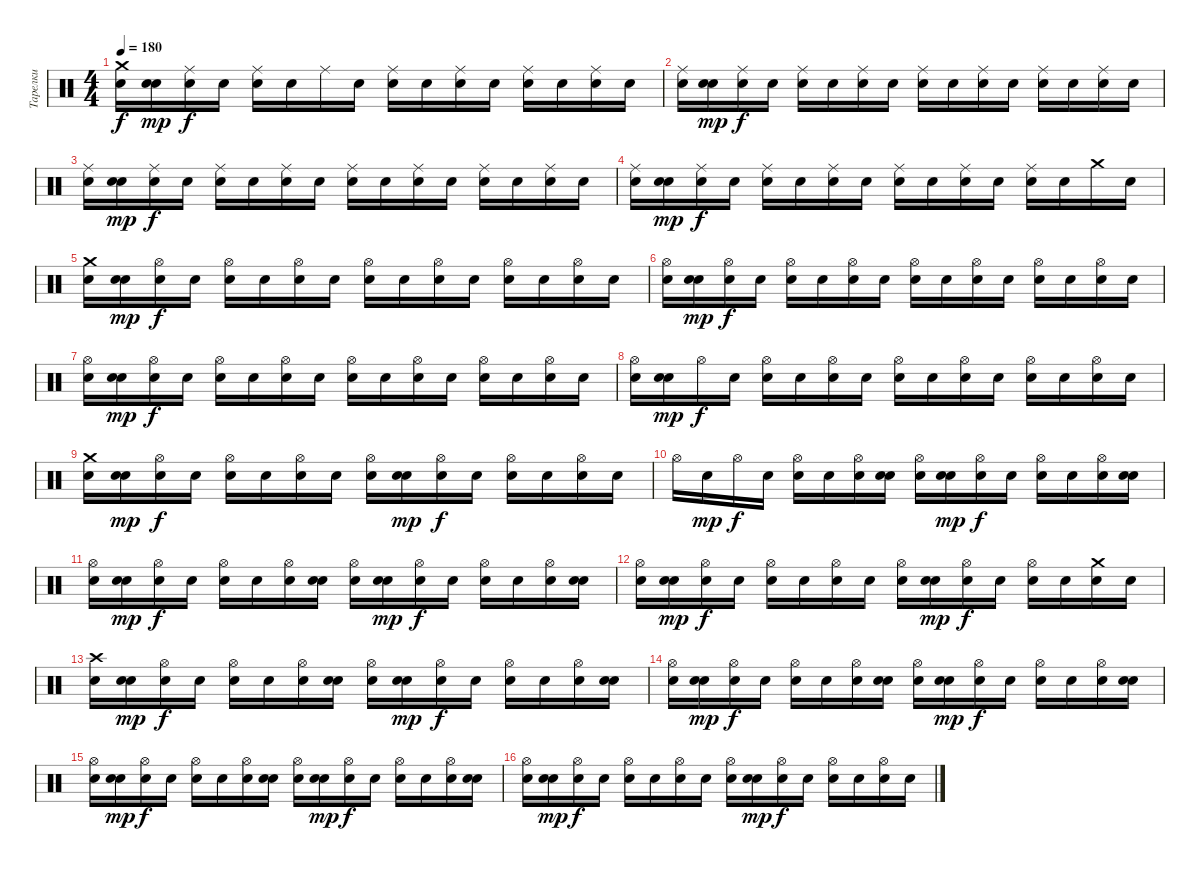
\track ("Тарелки" "Тарелки") {instrument percussion}
\staff {score}
\articulation defaults
\ts (4 4)
\tempo 180
\clef neutral
\ks c
("Crash medium (hit)" "Snare (hit)").16{dy f} ("Snare (hit)" "Snare (hit)").16{dy mp} ("Ride (middle)" "Snare (hit)").16{dy f} "Snare (hit)".16 ("Ride (middle)" "Snare (hit)").16 "Snare (hit)".16 "Ride (middle)".16 "Snare (hit)".16 ("Ride (middle)" "Snare (hit)").16 "Snare (hit)".16 ("Ride (middle)" "Snare (hit)").16 "Snare (hit)".16 ("Ride (middle)" "Snare (hit)").16 "Snare (hit)".16 ("Ride (middle)" "Snare (hit)").16 "Snare (hit)".16 |
("Ride (middle)" "Snare (hit)").16 ("Snare (hit)" "Snare (hit)").16{dy mp} ("Ride (middle)" "Snare (hit)").16{dy f} "Snare (hit)".16 ("Ride (middle)" "Snare (hit)").16 "Snare (hit)".16 ("Ride (middle)" "Snare (hit)").16 "Snare (hit)".16 ("Ride (middle)" "Snare (hit)").16 "Snare (hit)".16 ("Ride (middle)" "Snare (hit)").16 "Snare (hit)".16 ("Ride (middle)" "Snare (hit)").16 "Snare (hit)".16 ("Ride (middle)" "Snare (hit)").16 "Snare (hit)".16 |
("Ride (middle)" "Snare (hit)").16 ("Snare (hit)" "Snare (hit)").16{dy mp} ("Ride (middle)" "Snare (hit)").16{dy f} "Snare (hit)".16 ("Ride (middle)" "Snare (hit)").16 "Snare (hit)".16 ("Ride (middle)" "Snare (hit)").16 "Snare (hit)".16 ("Ride (middle)" "Snare (hit)").16 "Snare (hit)".16 ("Ride (middle)" "Snare (hit)").16 "Snare (hit)".16 ("Ride (middle)" "Snare (hit)").16 "Snare (hit)".16 ("Ride (middle)" "Snare (hit)").16 "Snare (hit)".16 |
("Ride (middle)" "Snare (hit)").16 ("Snare (hit)" "Snare (hit)").16{dy mp} ("Ride (middle)" "Snare (hit)").16{dy f} "Snare (hit)".16 ("Ride (middle)" "Snare (hit)").16 "Snare (hit)".16 ("Ride (middle)" "Snare (hit)").16 "Snare (hit)".16 ("Ride (middle)" "Snare (hit)").16 "Snare (hit)".16 ("Ride (middle)" "Snare (hit)").16 "Snare (hit)".16 ("Ride (middle)" "Snare (hit)").16 "Snare (hit)".16 "Crash medium (hit)".16 "Snare (hit)".16 |
("Crash medium (hit)" "Snare (hit)").16 ("Snare (hit)" "Snare (hit)").16{dy mp} ("Hi-Hat (open)" "Snare (hit)").16{dy f} "Snare (hit)".16 ("Hi-Hat (open)" "Snare (hit)").16 "Snare (hit)".16 ("Hi-Hat (open)" "Snare (hit)").16 "Snare (hit)".16 ("Hi-Hat (open)" "Snare (hit)").16 "Snare (hit)".16 ("Hi-Hat (open)" "Snare (hit)").16 "Snare (hit)".16 ("Hi-Hat (open)" "Snare (hit)").16 "Snare (hit)".16 ("Hi-Hat (open)" "Snare (hit)").16 "Snare (hit)".16 |
("Hi-Hat (open)" "Snare (hit)").16 ("Snare (hit)" "Snare (hit)").16{dy mp} ("Hi-Hat (open)" "Snare (hit)").16{dy f} "Snare (hit)".16 ("Hi-Hat (open)" "Snare (hit)").16 "Snare (hit)".16 ("Hi-Hat (open)" "Snare (hit)").16 "Snare (hit)".16 ("Hi-Hat (open)" "Snare (hit)").16 "Snare (hit)".16 ("Hi-Hat (open)" "Snare (hit)").16 "Snare (hit)".16 ("Hi-Hat (open)" "Snare (hit)").16 "Snare (hit)".16 ("Hi-Hat (open)" "Snare (hit)").16 "Snare (hit)".16 |
("Hi-Hat (open)" "Snare (hit)").16 ("Snare (hit)" "Snare (hit)").16{dy mp} ("Hi-Hat (open)" "Snare (hit)").16{dy f} "Snare (hit)".16 ("Hi-Hat (open)" "Snare (hit)").16 "Snare (hit)".16 ("Hi-Hat (open)" "Snare (hit)").16 "Snare (hit)".16 ("Hi-Hat (open)" "Snare (hit)").16 "Snare (hit)".16 ("Hi-Hat (open)" "Snare (hit)").16 "Snare (hit)".16 ("Hi-Hat (open)" "Snare (hit)").16 "Snare (hit)".16 ("Hi-Hat (open)" "Snare (hit)").16 "Snare (hit)".16 |
("Hi-Hat (open)" "Snare (hit)").16 ("Snare (hit)" "Snare (hit)").16{dy mp} "Hi-Hat (open)".16{dy f} "Snare (hit)".16 ("Hi-Hat (open)" "Snare (hit)").16 "Snare (hit)".16 ("Hi-Hat (open)" "Snare (hit)").16 "Snare (hit)".16 ("Hi-Hat (open)" "Snare (hit)").16 "Snare (hit)".16 ("Hi-Hat (open)" "Snare (hit)").16 "Snare (hit)".16 ("Hi-Hat (open)" "Snare (hit)").16 "Snare (hit)".16 ("Hi-Hat (open)" "Snare (hit)").16 "Snare (hit)".16 |
("Crash medium (hit)" "Snare (hit)").16 ("Snare (hit)" "Snare (hit)").16{dy mp} ("Hi-Hat (open)" "Snare (hit)").16{dy f} "Snare (hit)".16 ("Hi-Hat (open)" "Snare (hit)").16 "Snare (hit)".16 ("Hi-Hat (open)" "Snare (hit)").16 "Snare (hit)".16 ("Hi-Hat (open)" "Snare (hit)").16 ("Snare (hit)" "Snare (hit)").16{dy mp} ("Hi-Hat (open)" "Snare (hit)").16{dy f} "Snare (hit)".16 ("Hi-Hat (open)" "Snare (hit)").16 "Snare (hit)".16 ("Hi-Hat (open)" "Snare (hit)").16 "Snare (hit)".16 |
"Hi-Hat (open)".16 "Snare (hit)".16{dy mp} "Hi-Hat (open)".16{dy f} "Snare (hit)".16 ("Hi-Hat (open)" "Snare (hit)").16 "Snare (hit)".16 ("Hi-Hat (open)" "Snare (hit)").16 ("Snare (hit)" "Snare (hit)").16 ("Hi-Hat (open)" "Snare (hit)").16 ("Snare (hit)" "Snare (hit)").16{dy mp} ("Hi-Hat (open)" "Snare (hit)").16{dy f} "Snare (hit)".16 ("Hi-Hat (open)" "Snare (hit)").16 "Snare (hit)".16 ("Hi-Hat (open)" "Snare (hit)").16 ("Snare (hit)" "Snare (hit)").16 |
("Hi-Hat (open)" "Snare (hit)").16 ("Snare (hit)" "Snare (hit)").16{dy mp} ("Hi-Hat (open)" "Snare (hit)").16{dy f} "Snare (hit)".16 ("Hi-Hat (open)" "Snare (hit)").16 "Snare (hit)".16 ("Hi-Hat (open)" "Snare (hit)").16 ("Snare (hit)" "Snare (hit)").16 ("Hi-Hat (open)" "Snare (hit)").16 ("Snare (hit)" "Snare (hit)").16{dy mp} ("Hi-Hat (open)" "Snare (hit)").16{dy f} "Snare (hit)".16 ("Hi-Hat (open)" "Snare (hit)").16 "Snare (hit)".16 ("Hi-Hat (open)" "Snare (hit)").16 ("Snare (hit)" "Snare (hit)").16 |
("Hi-Hat (open)" "Snare (hit)").16 ("Snare (hit)" "Snare (hit)").16{dy mp} ("Hi-Hat (open)" "Snare (hit)").16{dy f} "Snare (hit)".16 ("Hi-Hat (open)" "Snare (hit)").16 "Snare (hit)".16 ("Hi-Hat (open)" "Snare (hit)").16 "Snare (hit)".16 ("Hi-Hat (open)" "Snare (hit)").16 ("Snare (hit)" "Snare (hit)").16{dy mp} ("Hi-Hat (open)" "Snare (hit)").16{dy f} "Snare (hit)".16 ("Hi-Hat (open)" "Snare (hit)").16 "Snare (hit)".16 ("Crash medium (hit)" "Snare (hit)").16 "Snare (hit)".16 |
("Crash high (hit)" "Snare (hit)").16 ("Snare (hit)" "Snare (hit)").16{dy mp} ("Hi-Hat (open)" "Snare (hit)").16{dy f} "Snare (hit)".16 ("Hi-Hat (open)" "Snare (hit)").16 "Snare (hit)".16 ("Hi-Hat (open)" "Snare (hit)").16 ("Snare (hit)" "Snare (hit)").16 ("Hi-Hat (open)" "Snare (hit)").16 ("Snare (hit)" "Snare (hit)").16{dy mp} ("Hi-Hat (open)" "Snare (hit)").16{dy f} "Snare (hit)".16 ("Hi-Hat (open)" "Snare (hit)").16 "Snare (hit)".16 ("Hi-Hat (open)" "Snare (hit)").16 ("Snare (hit)" "Snare (hit)").16 |
("Hi-Hat (open)" "Snare (hit)").16 ("Snare (hit)" "Snare (hit)").16{dy mp} ("Hi-Hat (open)" "Snare (hit)").16{dy f} "Snare (hit)".16 ("Hi-Hat (open)" "Snare (hit)").16 "Snare (hit)".16 ("Hi-Hat (open)" "Snare (hit)").16 ("Snare (hit)" "Snare (hit)").16 ("Hi-Hat (open)" "Snare (hit)").16 ("Snare (hit)" "Snare (hit)").16{dy mp} ("Hi-Hat (open)" "Snare (hit)").16{dy f} "Snare (hit)".16 ("Hi-Hat (open)" "Snare (hit)").16 "Snare (hit)".16 ("Hi-Hat (open)" "Snare (hit)").16 ("Snare (hit)" "Snare (hit)").16 |
("Hi-Hat (open)" "Snare (hit)").16 ("Snare (hit)" "Snare (hit)").16{dy mp} ("Hi-Hat (open)" "Snare (hit)").16{dy f} "Snare (hit)".16 ("Hi-Hat (open)" "Snare (hit)").16 "Snare (hit)".16 ("Hi-Hat (open)" "Snare (hit)").16 ("Snare (hit)" "Snare (hit)").16 ("Hi-Hat (open)" "Snare (hit)").16 ("Snare (hit)" "Snare (hit)").16{dy mp} ("Hi-Hat (open)" "Snare (hit)").16{dy f} "Snare (hit)".16 ("Hi-Hat (open)" "Snare (hit)").16 "Snare (hit)".16 ("Hi-Hat (open)" "Snare (hit)").16 ("Snare (hit)" "Snare (hit)").16 |
("Hi-Hat (open)" "Snare (hit)").16 ("Snare (hit)" "Snare (hit)").16{dy mp} ("Hi-Hat (open)" "Snare (hit)").16{dy f} "Snare (hit)".16 ("Hi-Hat (open)" "Snare (hit)").16 "Snare (hit)".16 ("Hi-Hat (open)" "Snare (hit)").16 "Snare (hit)".16 ("Hi-Hat (open)" "Snare (hit)").16 ("Snare (hit)" "Snare (hit)").16{dy mp} ("Hi-Hat (open)" "Snare (hit)").16{dy f} "Snare (hit)".16 ("Hi-Hat (open)" "Snare (hit)").16 "Snare (hit)".16 ("Hi-Hat (open)" "Snare (hit)").16 "Snare (hit)".16
